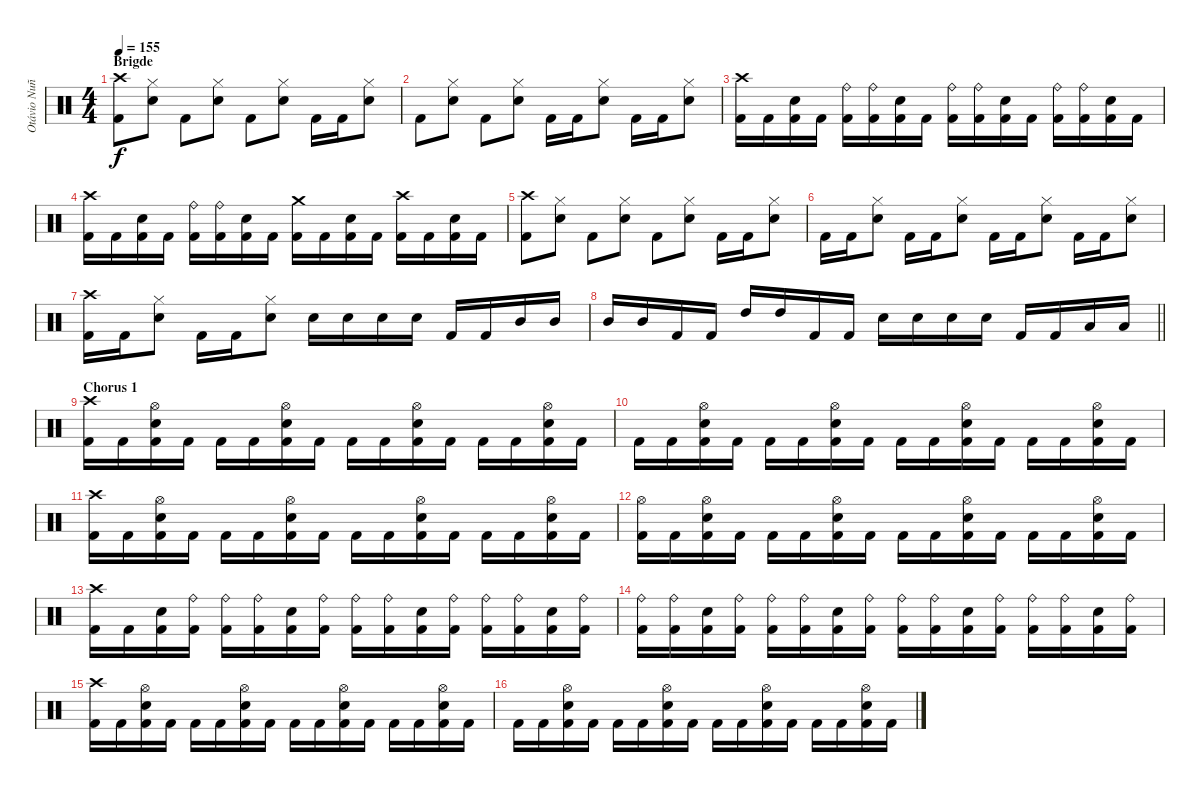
\track ("Otávio Nuñez" "Otávio Nuñ") {instrument percussion}
\staff {score}
\articulation defaults
\ts (4 4)
\section ("" "Brigde")
\tempo 155
\clef neutral
\ks c
("Crash high (hit)" "Kick (hit) 2").8{dy f} ("Hi-Hat (closed)" "Electric Snare (hit)").8 "Kick (hit) 2".8 ("Hi-Hat (closed)" "Electric Snare (hit)").8 "Kick (hit) 2".8 ("Hi-Hat (closed)" "Electric Snare (hit)").8 "Kick (hit) 2".16 "Kick (hit) 2".16 ("Hi-Hat (closed)" "Electric Snare (hit)").8 |
"Kick (hit) 2".8 ("Hi-Hat (closed)" "Electric Snare (hit)").8 "Kick (hit) 2".8 ("Hi-Hat (closed)" "Electric Snare (hit)").8 "Kick (hit) 2".16 "Kick (hit) 2".16 ("Hi-Hat (closed)" "Electric Snare (hit)").8 "Kick (hit) 2".16 "Kick (hit) 2".16 ("Hi-Hat (closed)" "Electric Snare (hit)").8 |
("Crash high (hit)" "Kick (hit) 2").16 "Kick (hit) 2".16 ("Electric Snare (hit)" "Kick (hit) 2").16 "Kick (hit) 2".16 ("Ride (bell)" "Kick (hit) 2").16 ("Ride (bell)" "Kick (hit) 2").16 ("Electric Snare (hit)" "Kick (hit) 2").16 "Kick (hit) 2".16 ("Ride (bell)" "Kick (hit) 2").16 ("Ride (bell)" "Kick (hit) 2").16 ("Electric Snare (hit)" "Kick (hit) 2").16 "Kick (hit) 2".16 ("Ride (bell)" "Kick (hit) 2").16 ("Ride (bell)" "Kick (hit) 2").16 ("Electric Snare (hit)" "Kick (hit) 2").16 "Kick (hit) 2".16 |
("Crash high (hit)" "Kick (hit) 2").16 "Kick (hit) 2".16 ("Electric Snare (hit)" "Kick (hit) 2").16 "Kick (hit) 2".16 ("Ride (bell)" "Kick (hit) 2").16 ("Ride (bell)" "Kick (hit) 2").16 ("Electric Snare (hit)" "Kick (hit) 2").16 "Kick (hit) 2".16 ("Crash medium (hit)" "Kick (hit) 2").16 "Kick (hit) 2".16 ("Electric Snare (hit)" "Kick (hit) 2").16 "Kick (hit) 2".16 ("Crash high (hit)" "Kick (hit) 2").16 "Kick (hit) 2".16 ("Electric Snare (hit)" "Kick (hit) 2").16 "Kick (hit) 2".16 |
("Crash high (hit)" "Kick (hit) 2").8 ("Hi-Hat (closed)" "Electric Snare (hit)").8 "Kick (hit) 2".8 ("Hi-Hat (closed)" "Electric Snare (hit)").8 "Kick (hit) 2".8 ("Hi-Hat (closed)" "Electric Snare (hit)").8 "Kick (hit) 2".16 "Kick (hit) 2".16 ("Hi-Hat (closed)" "Electric Snare (hit)").8 |
"Kick (hit) 2".16 "Kick (hit) 2".16 ("Hi-Hat (closed)" "Electric Snare (hit)").8 "Kick (hit) 2".16 "Kick (hit) 2".16 ("Hi-Hat (closed)" "Electric Snare (hit)").8 "Kick (hit) 2".16 "Kick (hit) 2".16 ("Hi-Hat (closed)" "Electric Snare (hit)").8 "Kick (hit) 2".16 "Kick (hit) 2".16 ("Hi-Hat (closed)" "Electric Snare (hit)").8 |
("Crash high (hit)" "Kick (hit) 2").16 "Kick (hit) 2".16 ("Hi-Hat (closed)" "Electric Snare (hit)").8 "Kick (hit) 2".16 "Kick (hit) 2".16 ("Hi-Hat (closed)" "Electric Snare (hit)").8 "Electric Snare (hit)".16 "Electric Snare (hit)".16 "Electric Snare (hit)".16 "Electric Snare (hit)".16 "Kick (hit) 2".16 "Kick (hit) 2".16 "Mid Tom (hit)".16 "Mid Tom (hit)".16 |
\barLineRight lightlight "Mid Tom (hit)".16 "Mid Tom (hit)".16 "Kick (hit) 2".16 "Kick (hit) 2".16 "High Tom (hit)".16 "High Tom (hit)".16 "Kick (hit) 2".16 "Kick (hit) 2".16 "Electric Snare (hit)".16 "Electric Snare (hit)".16 "Electric Snare (hit)".16 "Electric Snare (hit)".16 "Kick (hit) 2".16 "Kick (hit) 2".16 "Low Floor Tom (hit)".16 "Low Floor Tom (hit)".16
|
\section ("" "Chorus 1")
("Crash high (hit)" "Kick (hit) 2").16 "Kick (hit) 2".16 ("Hi-Hat (open)" "Electric Snare (hit)" "Kick (hit) 2").16 "Kick (hit) 2".16 "Kick (hit) 2".16 "Kick (hit) 2".16 ("Hi-Hat (open)" "Electric Snare (hit)" "Kick (hit) 2").16 "Kick (hit) 2".16 "Kick (hit) 2".16 "Kick (hit) 2".16 ("Hi-Hat (open)" "Electric Snare (hit)" "Kick (hit) 2").16 "Kick (hit) 2".16 "Kick (hit) 2".16 "Kick (hit) 2".16 ("Hi-Hat (open)" "Electric Snare (hit)" "Kick (hit) 2").16 "Kick (hit) 2".16 |
"Kick (hit) 2".16 "Kick (hit) 2".16 ("Hi-Hat (open)" "Electric Snare (hit)" "Kick (hit) 2").16 "Kick (hit) 2".16 "Kick (hit) 2".16 "Kick (hit) 2".16 ("Hi-Hat (open)" "Electric Snare (hit)" "Kick (hit) 2").16 "Kick (hit) 2".16 "Kick (hit) 2".16 "Kick (hit) 2".16 ("Hi-Hat (open)" "Electric Snare (hit)" "Kick (hit) 2").16 "Kick (hit) 2".16 "Kick (hit) 2".16 "Kick (hit) 2".16 ("Hi-Hat (open)" "Electric Snare (hit)" "Kick (hit) 2").16 "Kick (hit) 2".16 |
("Crash high (hit)" "Kick (hit) 2").16 "Kick (hit) 2".16 ("Hi-Hat (open)" "Electric Snare (hit)" "Kick (hit) 2").16 "Kick (hit) 2".16 "Kick (hit) 2".16 "Kick (hit) 2".16 ("Hi-Hat (open)" "Electric Snare (hit)" "Kick (hit) 2").16 "Kick (hit) 2".16 "Kick (hit) 2".16 "Kick (hit) 2".16 ("Hi-Hat (open)" "Electric Snare (hit)" "Kick (hit) 2").16 "Kick (hit) 2".16 "Kick (hit) 2".16 "Kick (hit) 2".16 ("Hi-Hat (open)" "Electric Snare (hit)" "Kick (hit) 2").16 "Kick (hit) 2".16 |
("Hi-Hat (open)" "Kick (hit) 2").16 "Kick (hit) 2".16 ("Hi-Hat (open)" "Electric Snare (hit)" "Kick (hit) 2").16 "Kick (hit) 2".16 "Kick (hit) 2".16 "Kick (hit) 2".16 ("Hi-Hat (open)" "Electric Snare (hit)" "Kick (hit) 2").16 "Kick (hit) 2".16 "Kick (hit) 2".16 "Kick (hit) 2".16 ("Hi-Hat (open)" "Electric Snare (hit)" "Kick (hit) 2").16 "Kick (hit) 2".16 "Kick (hit) 2".16 "Kick (hit) 2".16 ("Hi-Hat (open)" "Electric Snare (hit)" "Kick (hit) 2").16 "Kick (hit) 2".16 |
("Crash high (hit)" "Kick (hit) 2").16 "Kick (hit) 2".16 ("Electric Snare (hit)" "Kick (hit) 2").16 ("Ride (bell)" "Kick (hit) 2").16 ("Ride (bell)" "Kick (hit) 2").16 ("Ride (bell)" "Kick (hit) 2").16 ("Electric Snare (hit)" "Kick (hit) 2").16 ("Ride (bell)" "Kick (hit) 2").16 ("Ride (bell)" "Kick (hit) 2").16 ("Ride (bell)" "Kick (hit) 2").16 ("Electric Snare (hit)" "Kick (hit) 2").16 ("Ride (bell)" "Kick (hit) 2").16 ("Ride (bell)" "Kick (hit) 2").16 ("Ride (bell)" "Kick (hit) 2").16 ("Electric Snare (hit)" "Kick (hit) 2").16 ("Ride (bell)" "Kick (hit) 2").16 |
("Ride (bell)" "Kick (hit) 2").16 ("Ride (bell)" "Kick (hit) 2").16 ("Electric Snare (hit)" "Kick (hit) 2").16 ("Ride (bell)" "Kick (hit) 2").16 ("Ride (bell)" "Kick (hit) 2").16 ("Ride (bell)" "Kick (hit) 2").16 ("Electric Snare (hit)" "Kick (hit) 2").16 ("Ride (bell)" "Kick (hit) 2").16 ("Ride (bell)" "Kick (hit) 2").16 ("Ride (bell)" "Kick (hit) 2").16 ("Electric Snare (hit)" "Kick (hit) 2").16 ("Ride (bell)" "Kick (hit) 2").16 ("Ride (bell)" "Kick (hit) 2").16 ("Ride (bell)" "Kick (hit) 2").16 ("Electric Snare (hit)" "Kick (hit) 2").16 ("Ride (bell)" "Kick (hit) 2").16 |
("Crash high (hit)" "Kick (hit) 2").16 "Kick (hit) 2".16 ("Hi-Hat (open)" "Electric Snare (hit)" "Kick (hit) 2").16 "Kick (hit) 2".16 "Kick (hit) 2".16 "Kick (hit) 2".16 ("Hi-Hat (open)" "Electric Snare (hit)" "Kick (hit) 2").16 "Kick (hit) 2".16 "Kick (hit) 2".16 "Kick (hit) 2".16 ("Hi-Hat (open)" "Electric Snare (hit)" "Kick (hit) 2").16 "Kick (hit) 2".16 "Kick (hit) 2".16 "Kick (hit) 2".16 ("Hi-Hat (open)" "Electric Snare (hit)" "Kick (hit) 2").16 "Kick (hit) 2".16 |
"Kick (hit) 2".16 "Kick (hit) 2".16 ("Hi-Hat (open)" "Electric Snare (hit)" "Kick (hit) 2").16 "Kick (hit) 2".16 "Kick (hit) 2".16 "Kick (hit) 2".16 ("Hi-Hat (open)" "Electric Snare (hit)" "Kick (hit) 2").16 "Kick (hit) 2".16 "Kick (hit) 2".16 "Kick (hit) 2".16 ("Hi-Hat (open)" "Electric Snare (hit)" "Kick (hit) 2").16 "Kick (hit) 2".16 "Kick (hit) 2".16 "Kick (hit) 2".16 ("Hi-Hat (open)" "Electric Snare (hit)" "Kick (hit) 2").16 "Kick (hit) 2".16
